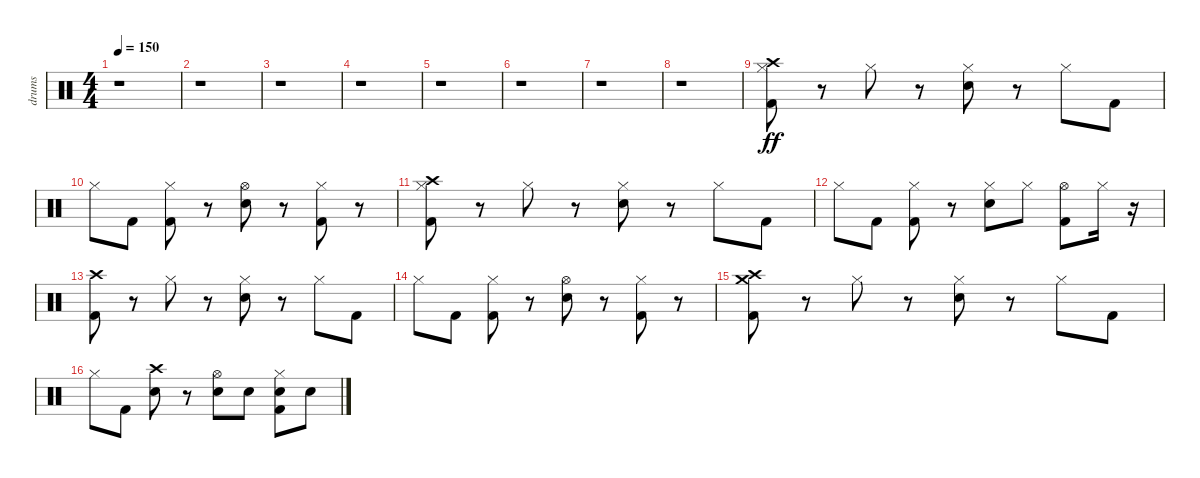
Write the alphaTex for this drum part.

\track ("drums" "drums") {instrument percussion}
\staff {score}
\articulation defaults
\ts (4 4)
\tempo 150
\clef neutral
\ks c
r.1{dy ff} |
r.1 |
r.1 |
r.1 |
r.1 |
r.1 |
r.1 |
r.1 |
("Hi-Hat (closed)" "Kick (hit) 2" "Crash high (hit)").8 r.8 "Hi-Hat (closed)".8 r.8 ("Hi-Hat (closed)" "Electric Snare (hit)").8 r.8 "Hi-Hat (closed)".8 "Kick (hit) 2".8 |
"Hi-Hat (closed)".8 "Kick (hit) 2".8 ("Hi-Hat (closed)" "Kick (hit) 2").8 r.8 ("Hi-Hat (open)" "Electric Snare (hit)").8 r.8 ("Kick (hit) 2" "Hi-Hat (closed)").8 r.8 |
("Hi-Hat (closed)" "Kick (hit) 2" "Crash high (hit)").8 r.8 "Hi-Hat (closed)".8 r.8 ("Hi-Hat (closed)" "Electric Snare (hit)").8 r.8 "Hi-Hat (closed)".8 "Kick (hit) 2".8 |
"Hi-Hat (closed)".8 "Kick (hit) 2".8 ("Hi-Hat (closed)" "Kick (hit) 2").8 r.8 ("Hi-Hat (closed)" "Electric Snare (hit)").8 "Hi-Hat (closed)".8 ("Kick (hit) 2" "Hi-Hat (open)").8 "Hi-Hat (closed)".16 r.16 |
("Kick (hit) 2" "Crash high (hit)").8 r.8 "Hi-Hat (closed)".8 r.8 ("Hi-Hat (closed)" "Electric Snare (hit)").8 r.8 "Hi-Hat (closed)".8 "Kick (hit) 2".8 |
"Hi-Hat (closed)".8 "Kick (hit) 2".8 ("Hi-Hat (closed)" "Kick (hit) 2").8 r.8 ("Hi-Hat (open)" "Electric Snare (hit)").8 r.8 ("Kick (hit) 2" "Hi-Hat (closed)").8 r.8 |
("Crash high (hit)" "Kick (hit) 2" "Crash medium (hit)").8 r.8 "Hi-Hat (closed)".8 r.8 ("Hi-Hat (closed)" "Electric Snare (hit)").8 r.8 "Hi-Hat (closed)".8 "Kick (hit) 2".8 |
"Hi-Hat (closed)".8 "Kick (hit) 2".8 ("Crash high (hit)" "Electric Snare (hit)").8 r.8 ("Hi-Hat (open)" "Electric Snare (hit)").8 "Snare (hit) 2".8 ("Snare (hit) 2" "Kick (hit) 2" "Hi-Hat (closed)").8 "Snare (hit) 2".8
